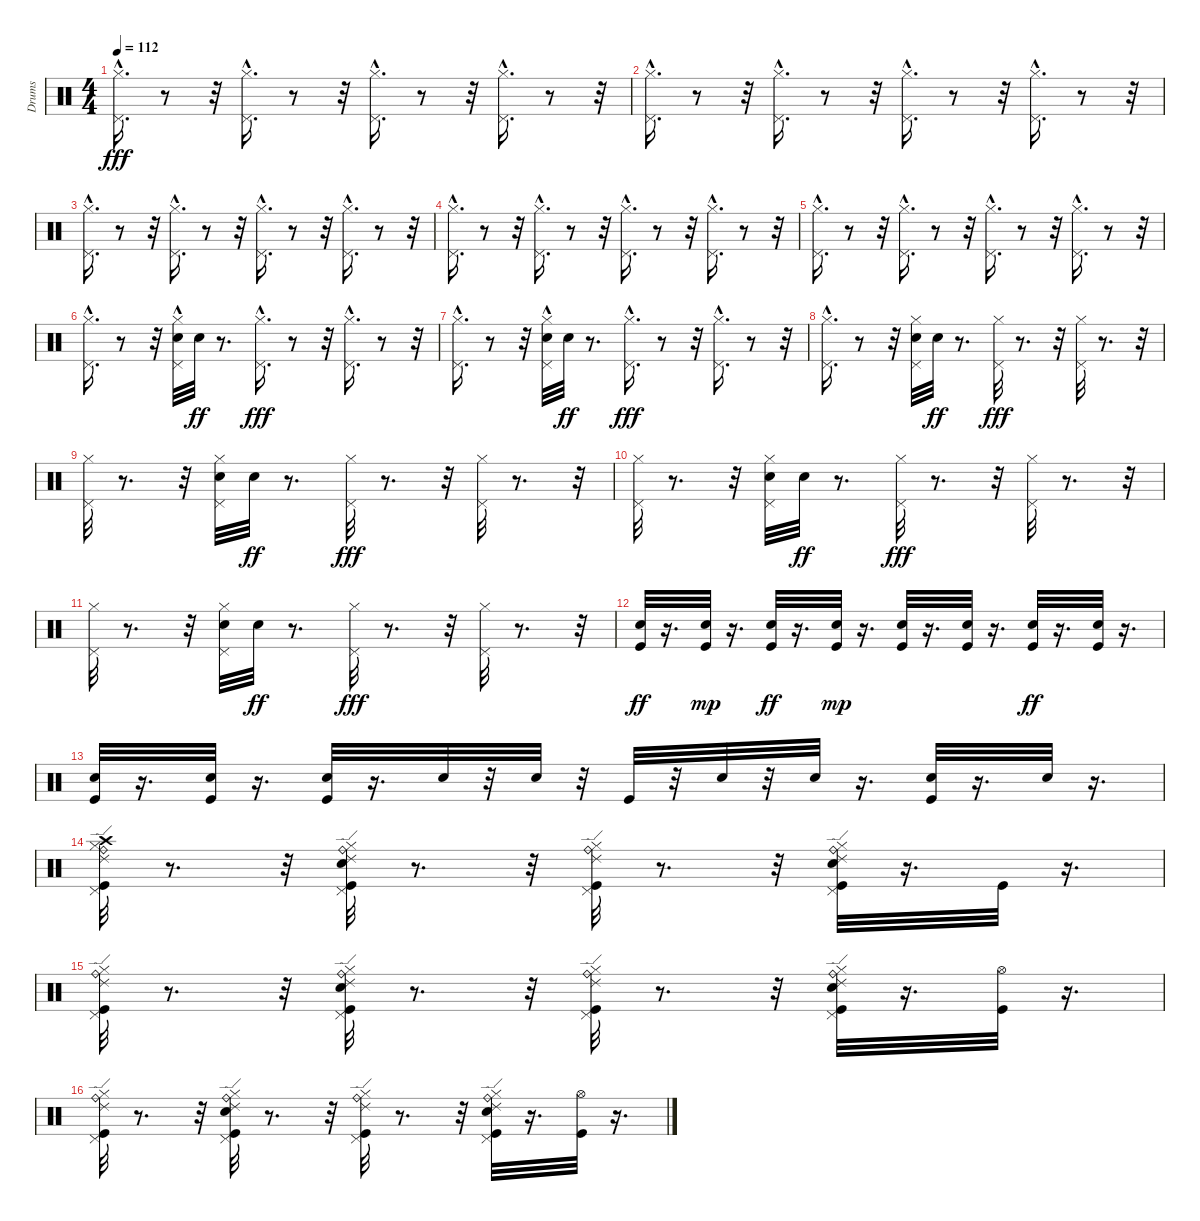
\track ("Drums" "Drums") {instrument percussion}
\staff {score}
\articulation defaults
\ts (4 4)
\tempo 112
\clef neutral
\ks c
("Hi-Hat (closed)"{hac} "Pedal Hi-Hat (hit)"{hac}).16{d dy fff} r.8 r.32 ("Pedal Hi-Hat (hit)"{hac} "Hi-Hat (closed)"{hac}).16{d} r.8 r.32 ("Hi-Hat (closed)"{hac} "Pedal Hi-Hat (hit)"{hac}).16{d} r.8 r.32 ("Pedal Hi-Hat (hit)"{hac} "Hi-Hat (closed)"{hac}).16{d} r.8 r.32 |
("Hi-Hat (closed)"{hac} "Pedal Hi-Hat (hit)"{hac}).16{d} r.8 r.32 ("Pedal Hi-Hat (hit)"{hac} "Hi-Hat (closed)"{hac}).16{d} r.8 r.32 ("Hi-Hat (closed)"{hac} "Pedal Hi-Hat (hit)"{hac}).16{d} r.8 r.32 ("Hi-Hat (closed)"{hac} "Pedal Hi-Hat (hit)"{hac}).16{d} r.8 r.32 |
("Pedal Hi-Hat (hit)"{hac} "Hi-Hat (closed)"{hac}).16{d} r.8 r.32 ("Hi-Hat (closed)"{hac} "Pedal Hi-Hat (hit)"{hac}).16{d} r.8 r.32 ("Hi-Hat (closed)"{hac} "Pedal Hi-Hat (hit)"{hac}).16{d} r.8 r.32 ("Pedal Hi-Hat (hit)"{hac} "Hi-Hat (closed)"{hac}).16{d} r.8 r.32 |
("Pedal Hi-Hat (hit)"{hac} "Hi-Hat (closed)"{hac}).16{d} r.8 r.32 ("Hi-Hat (closed)"{hac} "Pedal Hi-Hat (hit)"{hac}).16{d} r.8 r.32 ("Pedal Hi-Hat (hit)"{hac} "Hi-Hat (closed)"{hac}).16{d} r.8 r.32 ("Hi-Hat (closed)"{hac} "Pedal Hi-Hat (hit)"{hac}).16{d} r.8 r.32 |
("Pedal Hi-Hat (hit)"{hac} "Hi-Hat (closed)"{hac}).16{d} r.8 r.32 ("Pedal Hi-Hat (hit)"{hac} "Hi-Hat (closed)"{hac}).16{d} r.8 r.32 ("Pedal Hi-Hat (hit)"{hac} "Hi-Hat (closed)"{hac}).16{d} r.8 r.32 ("Pedal Hi-Hat (hit)"{hac} "Hi-Hat (closed)"{hac}).16{d} r.8 r.32 |
("Pedal Hi-Hat (hit)"{hac} "Hi-Hat (closed)"{hac}).16{d} r.8 r.32 ("Snare (hit) 2" "Pedal Hi-Hat (hit)"{hac} "Hi-Hat (closed)"{hac}).32 "Snare (hit) 2".32{dy ff} r.8{d} ("Pedal Hi-Hat (hit)"{hac} "Hi-Hat (closed)"{hac}).16{d dy fff} r.8 r.32 ("Hi-Hat (closed)"{hac} "Pedal Hi-Hat (hit)"{hac}).16{d} r.8 r.32 |
("Pedal Hi-Hat (hit)"{hac} "Hi-Hat (closed)"{hac}).16{d} r.8 r.32 ("Hi-Hat (closed)"{hac} "Snare (hit) 2" "Pedal Hi-Hat (hit)"{hac}).32 "Snare (hit) 2".32{dy ff} r.8{d} ("Hi-Hat (closed)"{hac} "Pedal Hi-Hat (hit)"{hac}).16{d dy fff} r.8 r.32 ("Hi-Hat (closed)"{hac} "Pedal Hi-Hat (hit)"{hac}).16{d} r.8 r.32 |
("Hi-Hat (closed)"{hac} "Pedal Hi-Hat (hit)"{hac}).16{d} r.8 r.32 ("Hi-Hat (closed)" "Pedal Hi-Hat (hit)" "Snare (hit) 2").32 "Snare (hit) 2".32{dy ff} r.8{d} ("Hi-Hat (closed)" "Pedal Hi-Hat (hit)").32{dy fff} r.8{d} r.32 ("Pedal Hi-Hat (hit)" "Hi-Hat (closed)").32 r.8{d} r.32 |
("Pedal Hi-Hat (hit)" "Hi-Hat (closed)").32 r.8{d} r.32 ("Pedal Hi-Hat (hit)" "Hi-Hat (closed)" "Snare (hit) 2").32 "Snare (hit) 2".32{dy ff} r.8{d} ("Hi-Hat (closed)" "Pedal Hi-Hat (hit)").32{dy fff} r.8{d} r.32 ("Pedal Hi-Hat (hit)" "Hi-Hat (closed)").32 r.8{d} r.32 |
("Pedal Hi-Hat (hit)" "Hi-Hat (closed)").32 r.8{d} r.32 ("Hi-Hat (closed)" "Pedal Hi-Hat (hit)" "Snare (hit) 2").32 "Snare (hit) 2".32{dy ff} r.8{d} ("Hi-Hat (closed)" "Pedal Hi-Hat (hit)").32{dy fff} r.8{d} r.32 ("Pedal Hi-Hat (hit)" "Hi-Hat (closed)").32 r.8{d} r.32 |
("Hi-Hat (closed)" "Pedal Hi-Hat (hit)").32 r.8{d} r.32 ("Hi-Hat (closed)" "Pedal Hi-Hat (hit)" "Snare (hit) 2").32 "Snare (hit) 2".32{dy ff} r.8{d} ("Pedal Hi-Hat (hit)" "Hi-Hat (closed)").32{dy fff} r.8{d} r.32 ("Hi-Hat (closed)" "Pedal Hi-Hat (hit)").32 r.8{d} r.32 |
("Snare (hit) 2" "Kick (hit)").32{dy ff} r.16{d} ("Kick (hit)" "Snare (hit) 2").32{dy mp} r.16{d} ("Snare (hit) 2" "Kick (hit)").32{dy ff} r.16{d} ("Kick (hit)" "Snare (hit) 2").32{dy mp} r.16{d} ("Kick (hit)" "Snare (hit) 2").32 r.16{d} ("Kick (hit)" "Snare (hit) 2").32 r.16{d} ("Snare (hit) 2" "Kick (hit)").32{dy ff} r.16{d} ("Snare (hit) 2" "Kick (hit)").32 r.16{d} |
("Snare (hit) 2" "Kick (hit)").32 r.16{d} ("Snare (hit) 2" "Kick (hit)").32 r.16{d} ("Snare (hit) 2" "Kick (hit)").32 r.16{d} "Snare (hit) 2".32 r.32 "Snare (hit) 2".32 r.32 "Kick (hit)".32 r.32 "Snare (hit) 2".32 r.32 "Snare (hit) 2".32 r.16{d} ("Snare (hit) 2" "Kick (hit)").32 r.16{d} "Snare (hit) 2".32 r.16{d} |
("Ride (bell)" "Ride (edge) 2" "Crash high (hit)" "Kick (hit)" "Pedal Hi-Hat (hit)" "Hi-Hat (closed)").32 r.8{d} r.32 ("Ride (bell)" "Ride (edge) 2" "Hi-Hat (closed)" "Pedal Hi-Hat (hit)" "Snare (hit) 2" "Kick (hit)").32 r.8{d} r.32 ("Ride (bell)" "Ride (edge) 2" "Kick (hit)" "Hi-Hat (closed)" "Pedal Hi-Hat (hit)").32 r.8{d} r.32 ("Ride (bell)" "Ride (edge) 2" "Pedal Hi-Hat (hit)" "Hi-Hat (closed)" "Kick (hit)" "Snare (hit) 2").32 r.16{d} "Kick (hit)".32 r.16{d} |
("Ride (bell)" "Ride (edge) 2" "Kick (hit)" "Pedal Hi-Hat (hit)" "Hi-Hat (closed)").32 r.8{d} r.32 ("Ride (bell)" "Ride (edge) 2" "Pedal Hi-Hat (hit)" "Snare (hit) 2" "Kick (hit)" "Hi-Hat (closed)").32 r.8{d} r.32 ("Ride (edge) 2" "Ride (bell)" "Kick (hit)" "Pedal Hi-Hat (hit)" "Hi-Hat (closed)").32 r.8{d} r.32 ("Ride (bell)" "Ride (edge) 2" "Pedal Hi-Hat (hit)" "Snare (hit) 2" "Hi-Hat (closed)" "Kick (hit)").32 r.16{d} ("Hi-Hat (open)" "Kick (hit)").32 r.16{d} |
("Ride (bell)" "Ride (edge) 2" "Hi-Hat (closed)" "Pedal Hi-Hat (hit)" "Kick (hit)").32 r.8{d} r.32 ("Ride (bell)" "Ride (edge) 2" "Pedal Hi-Hat (hit)" "Snare (hit) 2" "Hi-Hat (closed)" "Kick (hit)").32 r.8{d} r.32 ("Ride (edge) 2" "Ride (bell)" "Hi-Hat (closed)" "Pedal Hi-Hat (hit)" "Kick (hit)").32 r.8{d} r.32 ("Ride (edge) 2" "Ride (bell)" "Kick (hit)" "Snare (hit) 2" "Pedal Hi-Hat (hit)" "Hi-Hat (closed)").32 r.16{d} ("Hi-Hat (open)" "Kick (hit)").32 r.16{d}
